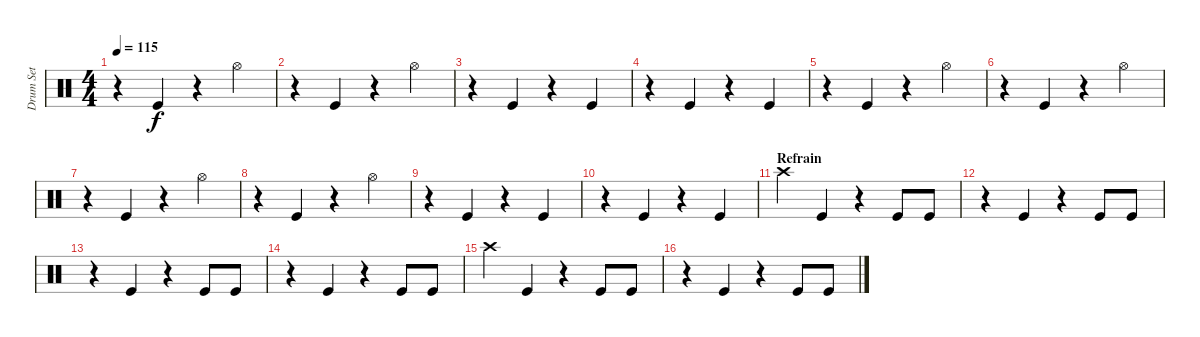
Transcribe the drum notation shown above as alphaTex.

\track ("Drum Set" "Drum Set") {instrument percussion}
\staff {score}
\articulation defaults
\ts (4 4)
\tempo 115
\clef neutral
\ks c
r.4{dy f} "Kick (hit)".4 r.4 "Hi-Hat (open)".4 |
r.4 "Kick (hit)".4 r.4 "Hi-Hat (open)".4 |
r.4 "Kick (hit)".4 r.4 "Kick (hit)".4 |
r.4 "Kick (hit)".4 r.4 "Kick (hit)".4 |
r.4 "Kick (hit)".4 r.4 "Hi-Hat (open)".4 |
r.4 "Kick (hit)".4 r.4 "Hi-Hat (open)".4 |
r.4 "Kick (hit)".4 r.4 "Hi-Hat (open)".4 |
r.4 "Kick (hit)".4 r.4 "Hi-Hat (open)".4 |
r.4 "Kick (hit)".4 r.4 "Kick (hit)".4 |
r.4 "Kick (hit)".4 r.4 "Kick (hit)".4 |
\section ("" "Refrain")
"Crash high (hit)".4 "Kick (hit)".4 r.4 "Kick (hit)".8 "Kick (hit)".8 |
r.4 "Kick (hit)".4 r.4 "Kick (hit)".8 "Kick (hit)".8 |
r.4 "Kick (hit)".4 r.4 "Kick (hit)".8 "Kick (hit)".8 |
r.4 "Kick (hit)".4 r.4 "Kick (hit)".8 "Kick (hit)".8 |
"Crash high (hit)".4 "Kick (hit)".4 r.4 "Kick (hit)".8 "Kick (hit)".8 |
r.4 "Kick (hit)".4 r.4 "Kick (hit)".8 "Kick (hit)".8
